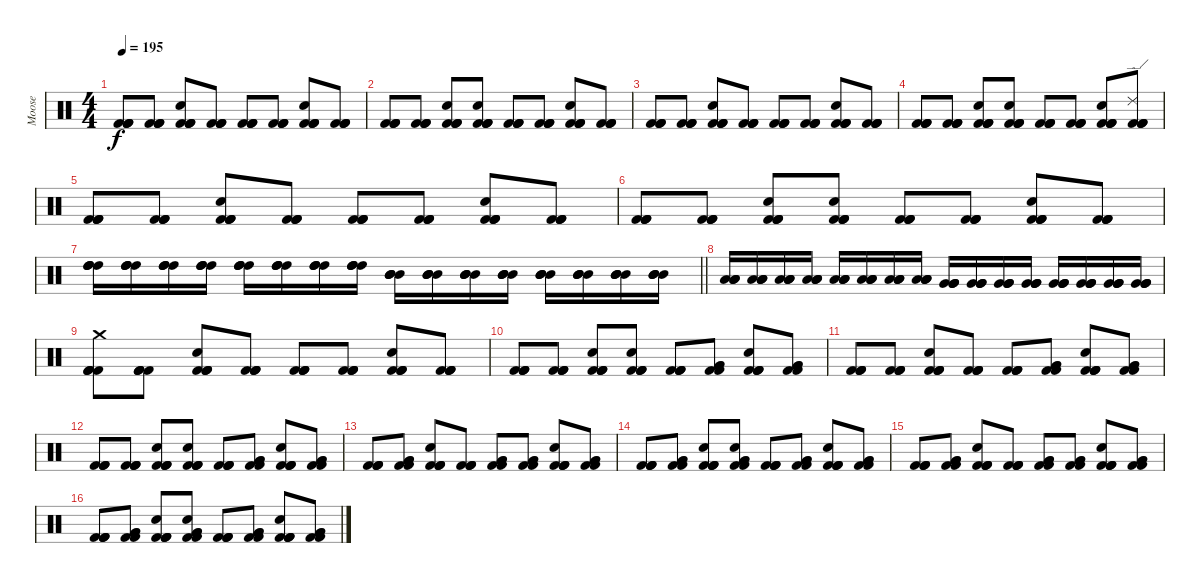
\track ("Moose" "Moose") {instrument percussion}
\staff {score}
\articulation defaults
\ts (4 4)
\tempo 195
\clef neutral
\ks c
("Kick (hit) 2" "Kick (hit) 2" "Kick (hit) 2" "Kick (hit) 2").8{dy f} ("Kick (hit) 2" "Kick (hit) 2" "Kick (hit) 2" "Kick (hit) 2").8 ("Kick (hit) 2" "Kick (hit) 2" "Kick (hit) 2" "Kick (hit) 2" "Hand Clap (hit)").8 ("Kick (hit) 2" "Kick (hit) 2" "Kick (hit) 2" "Kick (hit) 2").8 ("Kick (hit) 2" "Kick (hit) 2" "Kick (hit) 2" "Kick (hit) 2").8 ("Kick (hit) 2" "Kick (hit) 2" "Kick (hit) 2" "Kick (hit) 2").8 ("Kick (hit) 2" "Kick (hit) 2" "Kick (hit) 2" "Kick (hit) 2" "Hand Clap (hit)").8 ("Kick (hit) 2" "Kick (hit) 2" "Kick (hit) 2" "Kick (hit) 2").8 |
("Kick (hit) 2" "Kick (hit) 2" "Kick (hit) 2" "Kick (hit) 2").8 ("Kick (hit) 2" "Kick (hit) 2" "Kick (hit) 2" "Kick (hit) 2").8 ("Kick (hit) 2" "Kick (hit) 2" "Kick (hit) 2" "Kick (hit) 2" "Hand Clap (hit)").8 ("Kick (hit) 2" "Kick (hit) 2" "Kick (hit) 2" "Kick (hit) 2" "Hand Clap (hit)").8 ("Kick (hit) 2" "Kick (hit) 2" "Kick (hit) 2" "Kick (hit) 2").8 ("Kick (hit) 2" "Kick (hit) 2" "Kick (hit) 2" "Kick (hit) 2").8 ("Kick (hit) 2" "Kick (hit) 2" "Kick (hit) 2" "Kick (hit) 2" "Hand Clap (hit)").8 ("Kick (hit) 2" "Kick (hit) 2" "Kick (hit) 2" "Kick (hit) 2").8 |
("Kick (hit) 2" "Kick (hit) 2" "Kick (hit) 2" "Kick (hit) 2").8 ("Kick (hit) 2" "Kick (hit) 2" "Kick (hit) 2" "Kick (hit) 2").8 ("Kick (hit) 2" "Kick (hit) 2" "Kick (hit) 2" "Kick (hit) 2" "Hand Clap (hit)").8 ("Kick (hit) 2" "Kick (hit) 2" "Kick (hit) 2" "Kick (hit) 2").8 ("Kick (hit) 2" "Kick (hit) 2" "Kick (hit) 2" "Kick (hit) 2").8 ("Kick (hit) 2" "Kick (hit) 2" "Kick (hit) 2" "Kick (hit) 2").8 ("Kick (hit) 2" "Kick (hit) 2" "Kick (hit) 2" "Kick (hit) 2" "Hand Clap (hit)").8 ("Kick (hit) 2" "Kick (hit) 2" "Kick (hit) 2" "Kick (hit) 2").8 |
("Kick (hit) 2" "Kick (hit) 2" "Kick (hit) 2" "Kick (hit) 2").8 ("Kick (hit) 2" "Kick (hit) 2" "Kick (hit) 2" "Kick (hit) 2").8 ("Kick (hit) 2" "Kick (hit) 2" "Kick (hit) 2" "Kick (hit) 2" "Hand Clap (hit)").8 ("Kick (hit) 2" "Kick (hit) 2" "Kick (hit) 2" "Kick (hit) 2" "Hand Clap (hit)").8 ("Kick (hit) 2" "Kick (hit) 2" "Kick (hit) 2" "Kick (hit) 2").8 ("Kick (hit) 2" "Kick (hit) 2" "Kick (hit) 2" "Kick (hit) 2").8 ("Kick (hit) 2" "Kick (hit) 2" "Kick (hit) 2" "Kick (hit) 2" "Hand Clap (hit)").8 ("Kick (hit) 2" "Kick (hit) 2" "Kick (hit) 2" "Kick (hit) 2" "Ride (edge) 2").8 |
("Kick (hit) 2" "Kick (hit) 2" "Kick (hit) 2" "Kick (hit) 2").8 ("Kick (hit) 2" "Kick (hit) 2" "Kick (hit) 2" "Kick (hit) 2").8 ("Kick (hit) 2" "Kick (hit) 2" "Kick (hit) 2" "Kick (hit) 2" "Hand Clap (hit)").8 ("Kick (hit) 2" "Kick (hit) 2" "Kick (hit) 2" "Kick (hit) 2").8 ("Kick (hit) 2" "Kick (hit) 2" "Kick (hit) 2" "Kick (hit) 2").8 ("Kick (hit) 2" "Kick (hit) 2" "Kick (hit) 2" "Kick (hit) 2").8 ("Kick (hit) 2" "Kick (hit) 2" "Kick (hit) 2" "Kick (hit) 2" "Hand Clap (hit)").8 ("Kick (hit) 2" "Kick (hit) 2" "Kick (hit) 2" "Kick (hit) 2").8 |
("Kick (hit) 2" "Kick (hit) 2" "Kick (hit) 2" "Kick (hit) 2").8 ("Kick (hit) 2" "Kick (hit) 2" "Kick (hit) 2" "Kick (hit) 2").8 ("Kick (hit) 2" "Kick (hit) 2" "Kick (hit) 2" "Kick (hit) 2" "Hand Clap (hit)").8 ("Kick (hit) 2" "Kick (hit) 2" "Kick (hit) 2" "Kick (hit) 2" "Hand Clap (hit)").8 ("Kick (hit) 2" "Kick (hit) 2" "Kick (hit) 2" "Kick (hit) 2").8 ("Kick (hit) 2" "Kick (hit) 2" "Kick (hit) 2" "Kick (hit) 2").8 ("Kick (hit) 2" "Kick (hit) 2" "Kick (hit) 2" "Kick (hit) 2" "Hand Clap (hit)").8 ("Kick (hit) 2" "Kick (hit) 2" "Kick (hit) 2" "Kick (hit) 2").8 |
\barLineRight lightlight
("High Tom (hit)" "High Tom (hit)" "High Tom (hit)" "High Tom (hit)").16 ("High Tom (hit)" "High Tom (hit)" "High Tom (hit)" "High Tom (hit)").16 ("High Tom (hit)" "High Tom (hit)" "High Tom (hit)" "High Tom (hit)").16 ("High Tom (hit)" "High Tom (hit)" "High Tom (hit)" "High Tom (hit)").16 ("High Tom (hit)" "High Tom (hit)" "High Tom (hit)" "High Tom (hit)").16 ("High Tom (hit)" "High Tom (hit)" "High Tom (hit)" "High Tom (hit)").16 ("High Tom (hit)" "High Tom (hit)" "High Tom (hit)" "High Tom (hit)").16 ("High Tom (hit)" "High Tom (hit)" "High Tom (hit)" "High Tom (hit)").16 ("Mid Tom (hit)" "Mid Tom (hit)" "Mid Tom (hit)" "Mid Tom (hit)").16 ("Mid Tom (hit)" "Mid Tom (hit)" "Mid Tom (hit)" "Mid Tom (hit)").16 ("Mid Tom (hit)" "Mid Tom (hit)" "Mid Tom (hit)" "Mid Tom (hit)").16 ("Mid Tom (hit)" "Mid Tom (hit)" "Mid Tom (hit)" "Mid Tom (hit)").16 ("Mid Tom (hit)" "Mid Tom (hit)" "Mid Tom (hit)" "Mid Tom (hit)").16 ("Mid Tom (hit)" "Mid Tom (hit)" "Mid Tom (hit)" "Mid Tom (hit)").16 ("Mid Tom (hit)" "Mid Tom (hit)" "Mid Tom (hit)" "Mid Tom (hit)").16 ("Mid Tom (hit)" "Mid Tom (hit)" "Mid Tom (hit)" "Mid Tom (hit)").16 |
("Low Tom (hit)" "Low Tom (hit)" "Low Tom (hit)" "Low Tom (hit)").16 ("Low Tom (hit)" "Low Tom (hit)" "Low Tom (hit)" "Low Tom (hit)").16 ("Low Tom (hit)" "Low Tom (hit)" "Low Tom (hit)" "Low Tom (hit)").16 ("Low Tom (hit)" "Low Tom (hit)" "Low Tom (hit)" "Low Tom (hit)").16 ("Low Tom (hit)" "Low Tom (hit)" "Low Tom (hit)" "Low Tom (hit)").16 ("Low Tom (hit)" "Low Tom (hit)" "Low Tom (hit)" "Low Tom (hit)").16 ("Low Tom (hit)" "Low Tom (hit)" "Low Tom (hit)" "Low Tom (hit)").16 ("Low Tom (hit)" "Low Tom (hit)" "Low Tom (hit)" "Low Tom (hit)").16 ("Very Low Tom (hit)" "Very Low Tom (hit)" "Very Low Tom (hit)" "Very Low Tom (hit)").16 ("Very Low Tom (hit)" "Very Low Tom (hit)" "Very Low Tom (hit)" "Very Low Tom (hit)").16 ("Very Low Tom (hit)" "Very Low Tom (hit)" "Very Low Tom (hit)" "Very Low Tom (hit)").16 ("Very Low Tom (hit)" "Very Low Tom (hit)" "Very Low Tom (hit)" "Very Low Tom (hit)").16 ("Very Low Tom (hit)" "Very Low Tom (hit)" "Very Low Tom (hit)" "Very Low Tom (hit)").16 ("Very Low Tom (hit)" "Very Low Tom (hit)" "Very Low Tom (hit)" "Very Low Tom (hit)").16 ("Very Low Tom (hit)" "Very Low Tom (hit)" "Very Low Tom (hit)" "Very Low Tom (hit)").16 ("Very Low Tom (hit)" "Very Low Tom (hit)" "Very Low Tom (hit)" "Very Low Tom (hit)").16 |
("Kick (hit) 2" "Kick (hit) 2" "Kick (hit) 2" "Kick (hit) 2" "Crash medium (hit)").8 ("Kick (hit) 2" "Kick (hit) 2" "Kick (hit) 2" "Kick (hit) 2").8 ("Kick (hit) 2" "Kick (hit) 2" "Kick (hit) 2" "Kick (hit) 2" "Hand Clap (hit)").8 ("Kick (hit) 2" "Kick (hit) 2" "Kick (hit) 2" "Kick (hit) 2").8 ("Kick (hit) 2" "Kick (hit) 2" "Kick (hit) 2" "Kick (hit) 2").8 ("Kick (hit) 2" "Kick (hit) 2" "Kick (hit) 2" "Kick (hit) 2").8 ("Kick (hit) 2" "Kick (hit) 2" "Kick (hit) 2" "Kick (hit) 2" "Hand Clap (hit)").8 ("Kick (hit) 2" "Kick (hit) 2" "Kick (hit) 2" "Kick (hit) 2").8 |
("Kick (hit) 2" "Kick (hit) 2" "Kick (hit) 2" "Kick (hit) 2").8 ("Kick (hit) 2" "Kick (hit) 2" "Kick (hit) 2" "Kick (hit) 2").8 ("Kick (hit) 2" "Kick (hit) 2" "Kick (hit) 2" "Kick (hit) 2" "Hand Clap (hit)").8 ("Kick (hit) 2" "Kick (hit) 2" "Kick (hit) 2" "Kick (hit) 2" "Hand Clap (hit)").8 ("Kick (hit) 2" "Kick (hit) 2" "Kick (hit) 2" "Kick (hit) 2").8 ("Kick (hit) 2" "Kick (hit) 2" "Very Low Tom (hit)" "Very Low Tom (hit)").8 ("Kick (hit) 2" "Kick (hit) 2" "Kick (hit) 2" "Kick (hit) 2" "Hand Clap (hit)").8 ("Kick (hit) 2" "Kick (hit) 2" "Very Low Tom (hit)" "Very Low Tom (hit)").8 |
("Kick (hit) 2" "Kick (hit) 2" "Kick (hit) 2" "Kick (hit) 2").8 ("Kick (hit) 2" "Kick (hit) 2" "Kick (hit) 2" "Kick (hit) 2").8 ("Kick (hit) 2" "Kick (hit) 2" "Kick (hit) 2" "Kick (hit) 2" "Hand Clap (hit)").8 ("Kick (hit) 2" "Kick (hit) 2" "Kick (hit) 2" "Kick (hit) 2").8 ("Kick (hit) 2" "Kick (hit) 2" "Kick (hit) 2" "Kick (hit) 2").8 ("Kick (hit) 2" "Kick (hit) 2" "Very Low Tom (hit)" "Very Low Tom (hit)").8 ("Kick (hit) 2" "Kick (hit) 2" "Kick (hit) 2" "Kick (hit) 2" "Hand Clap (hit)").8 ("Kick (hit) 2" "Kick (hit) 2" "Very Low Tom (hit)" "Very Low Tom (hit)").8 |
("Kick (hit) 2" "Kick (hit) 2" "Kick (hit) 2" "Kick (hit) 2").8 ("Kick (hit) 2" "Kick (hit) 2" "Kick (hit) 2" "Kick (hit) 2").8 ("Kick (hit) 2" "Kick (hit) 2" "Kick (hit) 2" "Kick (hit) 2" "Hand Clap (hit)").8 ("Kick (hit) 2" "Kick (hit) 2" "Kick (hit) 2" "Kick (hit) 2" "Hand Clap (hit)").8 ("Kick (hit) 2" "Kick (hit) 2" "Kick (hit) 2" "Kick (hit) 2").8 ("Kick (hit) 2" "Kick (hit) 2" "Very Low Tom (hit)" "Very Low Tom (hit)").8 ("Kick (hit) 2" "Kick (hit) 2" "Kick (hit) 2" "Kick (hit) 2" "Hand Clap (hit)").8 ("Kick (hit) 2" "Kick (hit) 2" "Very Low Tom (hit)" "Very Low Tom (hit)").8 |
("Kick (hit) 2" "Kick (hit) 2" "Kick (hit) 2" "Kick (hit) 2").8 ("Kick (hit) 2" "Kick (hit) 2" "Very Low Tom (hit)" "Very Low Tom (hit)").8 ("Kick (hit) 2" "Kick (hit) 2" "Kick (hit) 2" "Kick (hit) 2" "Hand Clap (hit)").8 ("Kick (hit) 2" "Kick (hit) 2" "Kick (hit) 2" "Kick (hit) 2").8 ("Kick (hit) 2" "Kick (hit) 2" "Very Low Tom (hit)" "Very Low Tom (hit)").8 ("Kick (hit) 2" "Kick (hit) 2" "Very Low Tom (hit)" "Very Low Tom (hit)").8 ("Kick (hit) 2" "Kick (hit) 2" "Kick (hit) 2" "Kick (hit) 2" "Hand Clap (hit)").8 ("Kick (hit) 2" "Kick (hit) 2" "Very Low Tom (hit)" "Very Low Tom (hit)").8 |
("Kick (hit) 2" "Kick (hit) 2" "Kick (hit) 2" "Kick (hit) 2").8 ("Kick (hit) 2" "Kick (hit) 2" "Very Low Tom (hit)" "Very Low Tom (hit)").8 ("Kick (hit) 2" "Kick (hit) 2" "Kick (hit) 2" "Kick (hit) 2" "Hand Clap (hit)").8 ("Kick (hit) 2" "Kick (hit) 2" "Very Low Tom (hit)" "Very Low Tom (hit)" "Hand Clap (hit)").8 ("Kick (hit) 2" "Kick (hit) 2" "Kick (hit) 2" "Kick (hit) 2").8 ("Kick (hit) 2" "Kick (hit) 2" "Very Low Tom (hit)" "Very Low Tom (hit)").8 ("Kick (hit) 2" "Kick (hit) 2" "Kick (hit) 2" "Kick (hit) 2" "Hand Clap (hit)").8 ("Kick (hit) 2" "Kick (hit) 2" "Very Low Tom (hit)" "Very Low Tom (hit)").8 |
("Kick (hit) 2" "Kick (hit) 2" "Kick (hit) 2" "Kick (hit) 2").8 ("Kick (hit) 2" "Kick (hit) 2" "Very Low Tom (hit)" "Very Low Tom (hit)").8 ("Kick (hit) 2" "Kick (hit) 2" "Kick (hit) 2" "Kick (hit) 2" "Hand Clap (hit)").8 ("Kick (hit) 2" "Kick (hit) 2" "Kick (hit) 2" "Kick (hit) 2").8 ("Kick (hit) 2" "Kick (hit) 2" "Very Low Tom (hit)" "Very Low Tom (hit)").8 ("Kick (hit) 2" "Kick (hit) 2" "Very Low Tom (hit)" "Very Low Tom (hit)").8 ("Kick (hit) 2" "Kick (hit) 2" "Kick (hit) 2" "Kick (hit) 2" "Hand Clap (hit)").8 ("Kick (hit) 2" "Kick (hit) 2" "Very Low Tom (hit)" "Very Low Tom (hit)").8 |
("Kick (hit) 2" "Kick (hit) 2" "Kick (hit) 2" "Kick (hit) 2").8 ("Kick (hit) 2" "Kick (hit) 2" "Very Low Tom (hit)" "Very Low Tom (hit)").8 ("Kick (hit) 2" "Kick (hit) 2" "Kick (hit) 2" "Kick (hit) 2" "Hand Clap (hit)").8 ("Kick (hit) 2" "Kick (hit) 2" "Very Low Tom (hit)" "Very Low Tom (hit)" "Hand Clap (hit)").8 ("Kick (hit) 2" "Kick (hit) 2" "Kick (hit) 2" "Kick (hit) 2").8 ("Kick (hit) 2" "Kick (hit) 2" "Very Low Tom (hit)" "Very Low Tom (hit)").8 ("Kick (hit) 2" "Kick (hit) 2" "Kick (hit) 2" "Kick (hit) 2" "Hand Clap (hit)").8 ("Kick (hit) 2" "Kick (hit) 2" "Very Low Tom (hit)" "Very Low Tom (hit)").8
